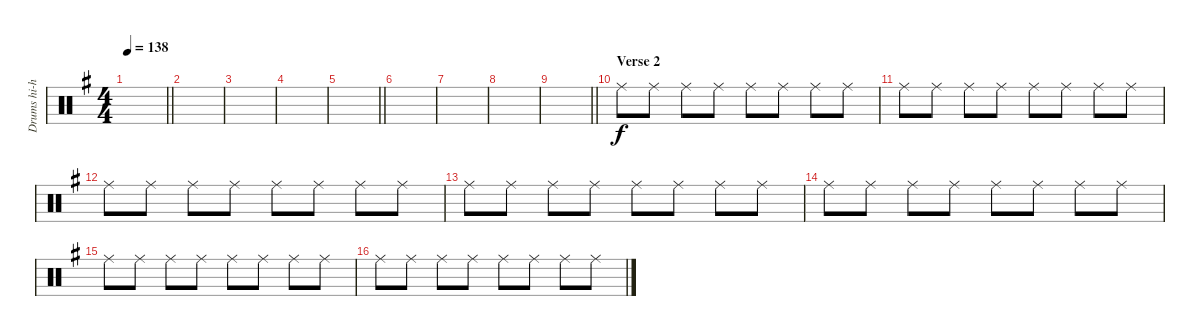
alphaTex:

\track ("Drums hi-hat" "Drums hi-h") {instrument percussion}
\staff {score}
\articulation defaults
\ts (4 4)
\tempo 138
\clef neutral
\barLineRight lightlight
\ks g
|
|
|
|
\barLineRight lightlight
|
|
|
|
\barLineRight lightlight
|
\section ("" "Verse 2")
"Ride (middle)".8 "Ride (middle)".8 "Ride (middle)".8 "Ride (middle)".8 "Ride (middle)".8 "Ride (middle)".8 "Ride (middle)".8 "Ride (middle)".8 |
"Ride (middle)".8 "Ride (middle)".8 "Ride (middle)".8 "Ride (middle)".8 "Ride (middle)".8 "Ride (middle)".8 "Ride (middle)".8 "Ride (middle)".8 |
"Ride (middle)".8 "Ride (middle)".8 "Ride (middle)".8 "Ride (middle)".8 "Ride (middle)".8 "Ride (middle)".8 "Ride (middle)".8 "Ride (middle)".8 |
"Ride (middle)".8 "Ride (middle)".8 "Ride (middle)".8 "Ride (middle)".8 "Ride (middle)".8 "Ride (middle)".8 "Ride (middle)".8 "Ride (middle)".8 |
"Ride (middle)".8 "Ride (middle)".8 "Ride (middle)".8 "Ride (middle)".8 "Ride (middle)".8 "Ride (middle)".8 "Ride (middle)".8 "Ride (middle)".8 |
"Ride (middle)".8 "Ride (middle)".8 "Ride (middle)".8 "Ride (middle)".8 "Ride (middle)".8 "Ride (middle)".8 "Ride (middle)".8 "Ride (middle)".8 |
"Ride (middle)".8 "Ride (middle)".8 "Ride (middle)".8 "Ride (middle)".8 "Ride (middle)".8 "Ride (middle)".8 "Ride (middle)".8 "Ride (middle)".8
